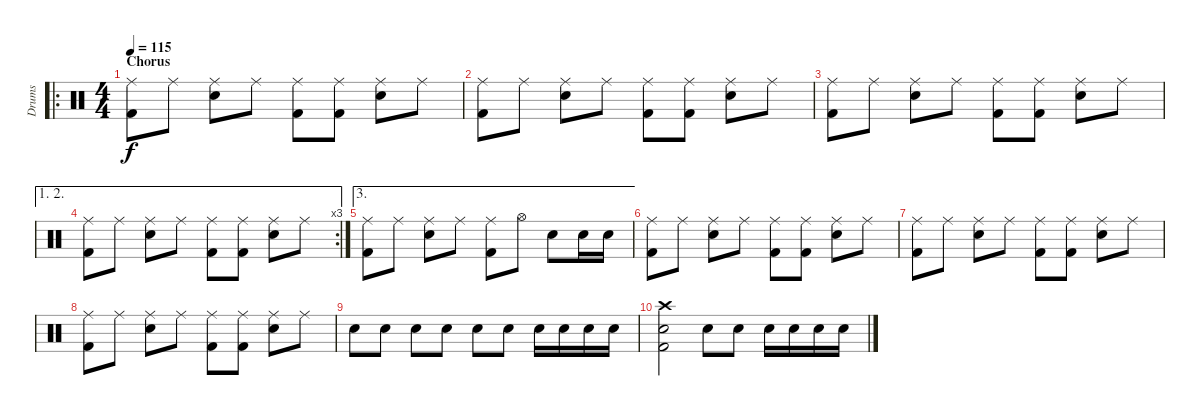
\track ("Drums" "Drums") {instrument percussion}
\staff {score}
\articulation defaults
\ro
\ts (4 4)
\section ("" "Chorus")
\tempo 115
\clef neutral
\ks c
("Ride (middle)" "Kick (hit) 2").8{dy f} "Ride (middle)".8 ("Ride (middle)" "Electric Snare (hit)").8 "Ride (middle)".8 ("Ride (middle)" "Kick (hit) 2").8 ("Ride (middle)" "Kick (hit) 2").8 ("Ride (middle)" "Electric Snare (hit)").8 "Ride (middle)".8 |
("Ride (middle)" "Kick (hit) 2").8 "Ride (middle)".8 ("Ride (middle)" "Electric Snare (hit)").8 "Ride (middle)".8 ("Ride (middle)" "Kick (hit) 2").8 ("Ride (middle)" "Kick (hit) 2").8 ("Ride (middle)" "Electric Snare (hit)").8 "Ride (middle)".8 |
("Ride (middle)" "Kick (hit) 2").8 "Ride (middle)".8 ("Ride (middle)" "Electric Snare (hit)").8 "Ride (middle)".8 ("Ride (middle)" "Kick (hit) 2").8 ("Ride (middle)" "Kick (hit) 2").8 ("Ride (middle)" "Electric Snare (hit)").8 "Ride (middle)".8 |
\ae (1 2)
\rc 3
("Ride (middle)" "Kick (hit) 2").8 "Ride (middle)".8 ("Ride (middle)" "Electric Snare (hit)").8 "Ride (middle)".8 ("Ride (middle)" "Kick (hit) 2").8 ("Ride (middle)" "Kick (hit) 2").8 ("Ride (middle)" "Electric Snare (hit)").8 "Ride (middle)".8 |
\ae 3
("Ride (middle)" "Kick (hit) 2").8 "Ride (middle)".8 ("Ride (middle)" "Electric Snare (hit)").8 "Ride (middle)".8 ("Ride (middle)" "Kick (hit) 2").8 "Hi-Hat (open)".8 "Electric Snare (hit)".8 "Electric Snare (hit)".16 "Electric Snare (hit)".16 |
("Ride (middle)" "Kick (hit) 2").8{volume 8} "Ride (middle)".8 ("Ride (middle)" "Electric Snare (hit)").8 "Ride (middle)".8 ("Ride (middle)" "Kick (hit) 2").8 ("Ride (middle)" "Kick (hit) 2").8 ("Ride (middle)" "Electric Snare (hit)").8 "Ride (middle)".8 |
("Ride (middle)" "Kick (hit) 2").8 "Ride (middle)".8 ("Ride (middle)" "Electric Snare (hit)").8 "Ride (middle)".8 ("Ride (middle)" "Kick (hit) 2").8 ("Ride (middle)" "Kick (hit) 2").8 ("Ride (middle)" "Electric Snare (hit)").8 "Ride (middle)".8 |
("Ride (middle)" "Kick (hit) 2").8{volume 0} "Ride (middle)".8 ("Ride (middle)" "Electric Snare (hit)").8 "Ride (middle)".8 ("Ride (middle)" "Kick (hit) 2").8 ("Ride (middle)" "Kick (hit) 2").8 ("Ride (middle)" "Electric Snare (hit)").8 "Ride (middle)".8 |
"Electric Snare (hit)".8{volume 16} "Electric Snare (hit)".8 "Electric Snare (hit)".8 "Electric Snare (hit)".8 "Electric Snare (hit)".8 "Electric Snare (hit)".8 "Electric Snare (hit)".16 "Electric Snare (hit)".16 "Electric Snare (hit)".16 "Electric Snare (hit)".16 |
("Crash high (hit)" "Kick (hit) 2" "Electric Snare (hit)").2 "Electric Snare (hit)".8 "Electric Snare (hit)".8 "Electric Snare (hit)".16 "Electric Snare (hit)".16 "Electric Snare (hit)".16 "Electric Snare (hit)".16
